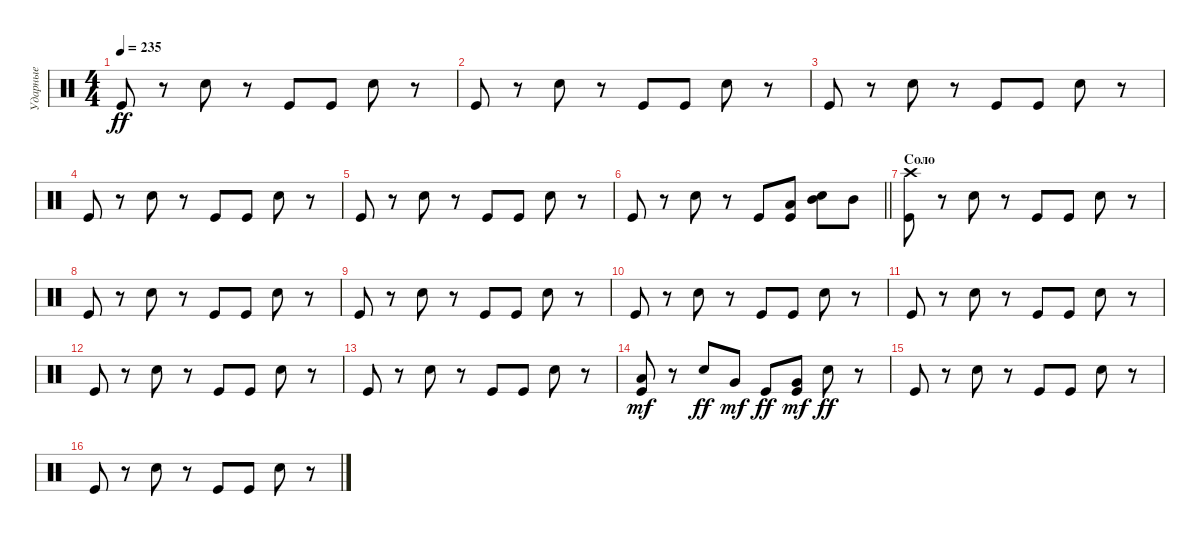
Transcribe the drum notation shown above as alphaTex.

\track ("Ударные" "Ударные") {instrument percussion}
\staff {score}
\articulation defaults
\ts (4 4)
\tempo 235
\clef neutral
\ks c "Kick (hit)".8{dy ff}
r.8 "Snare (hit) 2".8 r.8 "Kick (hit)".8 "Kick (hit)".8 "Snare (hit) 2".8 r.8 |
"Kick (hit)".8 r.8 "Snare (hit) 2".8 r.8 "Kick (hit)".8 "Kick (hit)".8 "Snare (hit) 2".8 r.8 |
"Kick (hit)".8 r.8 "Snare (hit) 2".8 r.8 "Kick (hit)".8 "Kick (hit)".8 "Snare (hit) 2".8 r.8 |
"Kick (hit)".8 r.8 "Snare (hit) 2".8 r.8 "Kick (hit)".8 "Kick (hit)".8 "Snare (hit) 2".8 r.8 |
"Kick (hit)".8 r.8 "Snare (hit) 2".8 r.8 "Kick (hit)".8 "Kick (hit)".8 "Snare (hit) 2".8 r.8 |
\barLineRight lightlight "Kick (hit)".8
r.8 "Snare (hit) 2".8 r.8 "Kick (hit)".8 ("Kick (hit)" "Low Tom (hit)").8 ("Snare (hit) 2" "Mid Tom (hit)").8 "Mid Tom (hit)".8 |
\section ("" "Соло")
("Kick (hit)" "Crash high (hit)").8 r.8 "Snare (hit) 2".8 r.8 "Kick (hit)".8 "Kick (hit)".8 "Snare (hit) 2".8 r.8 |
"Kick (hit)".8 r.8 "Snare (hit) 2".8 r.8 "Kick (hit)".8 "Kick (hit)".8 "Snare (hit) 2".8 r.8 |
"Kick (hit)".8 r.8 "Snare (hit) 2".8 r.8 "Kick (hit)".8 "Kick (hit)".8 "Snare (hit) 2".8 r.8 |
"Kick (hit)".8 r.8 "Snare (hit) 2".8 r.8 "Kick (hit)".8 "Kick (hit)".8 "Snare (hit) 2".8 r.8 |
"Kick (hit)".8 r.8 "Snare (hit) 2".8 r.8 "Kick (hit)".8 "Kick (hit)".8 "Snare (hit) 2".8 r.8 |
"Kick (hit)".8 r.8 "Snare (hit) 2".8 r.8 "Kick (hit)".8 "Kick (hit)".8 "Snare (hit) 2".8 r.8 |
"Kick (hit)".8 r.8 "Snare (hit) 2".8 r.8 "Kick (hit)".8 "Kick (hit)".8 "Snare (hit) 2".8 r.8 |
("Kick (hit)" "Low Floor Tom (hit)").8{dy mf} r.8 "Snare (hit) 2".8{dy ff} "Very Low Tom (hit)".8{dy mf} "Kick (hit)".8{dy ff} ("Kick (hit)" "Very Low Tom (hit)").8{dy mf} "Snare (hit) 2".8{dy ff} r.8 |
"Kick (hit)".8 r.8 "Snare (hit) 2".8 r.8 "Kick (hit)".8 "Kick (hit)".8 "Snare (hit) 2".8 r.8 |
"Kick (hit)".8 r.8 "Snare (hit) 2".8 r.8 "Kick (hit)".8 "Kick (hit)".8 "Snare (hit) 2".8 r.8
